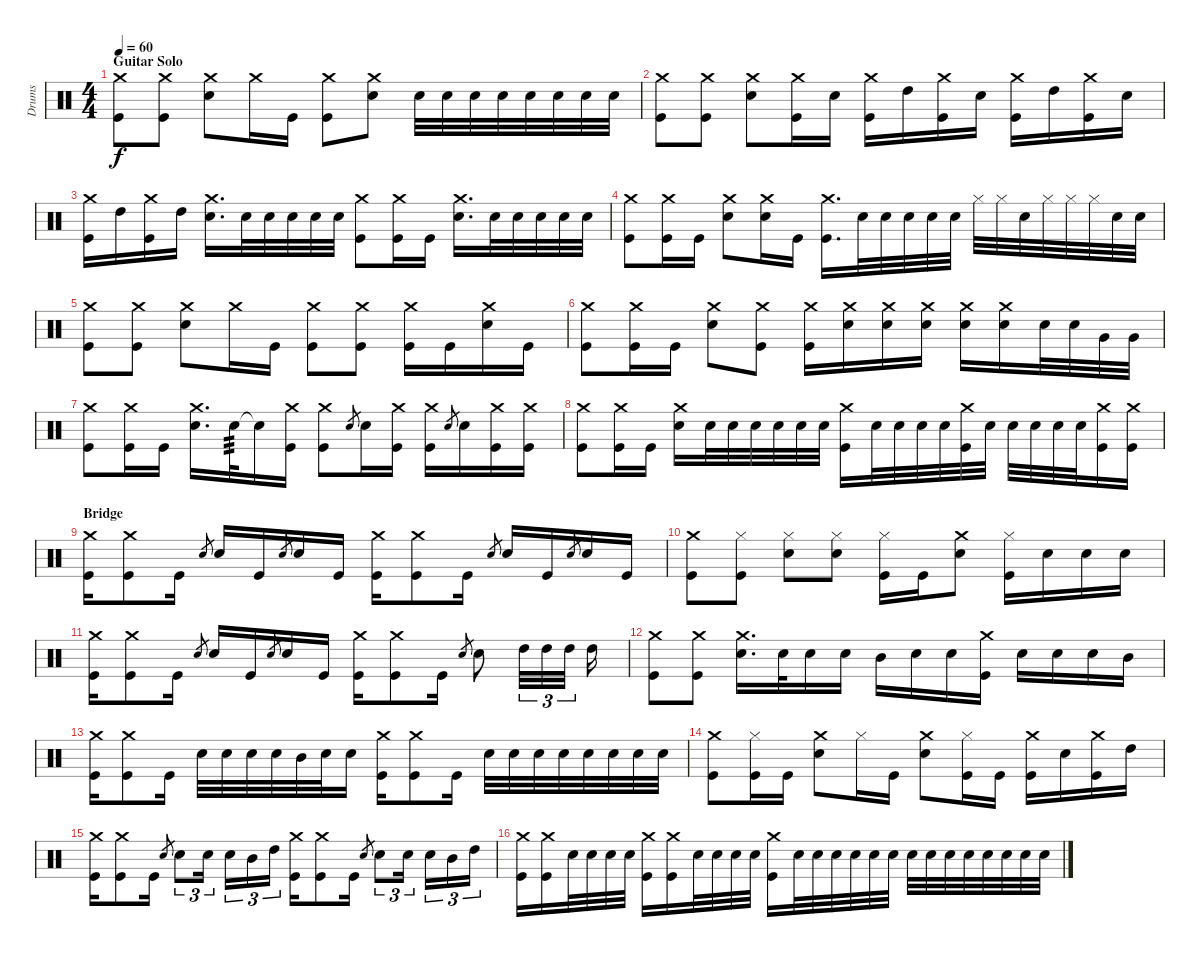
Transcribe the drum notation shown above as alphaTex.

\track ("Drums" "Drums") {instrument percussion}
\staff {score}
\articulation defaults
\ts (4 4)
\section ("" "Guitar Solo")
\tempo 60
\clef neutral
\ks c
("Kick (hit)" "Crash medium (hit)").8{dy f} ("Kick (hit)" "Crash medium (hit)").8 ("Electric Snare (hit)" "Crash medium (hit)").8 "Crash medium (hit)".16 "Kick (hit)".16 ("Kick (hit)" "Crash medium (hit)").8 ("Electric Snare (hit)" "Crash medium (hit)").8 "Electric Snare (hit)".32 "Electric Snare (hit)".32 "Electric Snare (hit)".32 "Electric Snare (hit)".32 "Electric Snare (hit)".32 "Electric Snare (hit)".32 "Electric Snare (hit)".32 "Electric Snare (hit)".32 |
("Kick (hit)" "Crash medium (hit)").8 ("Kick (hit)" "Crash medium (hit)").8 ("Electric Snare (hit)" "Crash medium (hit)").8 ("Kick (hit)" "Crash medium (hit)").16 "Electric Snare (hit)".16 ("Kick (hit)" "Crash medium (hit)").16 "High Tom (hit)".16 ("Kick (hit)" "Crash medium (hit)").16 "Electric Snare (hit)".16 ("Kick (hit)" "Crash medium (hit)").16 "High Tom (hit)".16 ("Kick (hit)" "Crash medium (hit)").16 "Electric Snare (hit)".16 |
("Kick (hit)" "Crash medium (hit)").16 "High Tom (hit)".16 ("Kick (hit)" "Crash medium (hit)").16 "High Tom (hit)".16 ("Electric Snare (hit)" "Crash medium (hit)").16{d} "Electric Snare (hit)".32 "Electric Snare (hit)".32 "Electric Snare (hit)".32 "Electric Snare (hit)".32 "Electric Snare (hit)".32 ("Kick (hit)" "Crash medium (hit)").8 ("Kick (hit)" "Crash medium (hit)").16 "Kick (hit)".16 ("Electric Snare (hit)" "Crash medium (hit)").16{d} "Electric Snare (hit)".32 "Electric Snare (hit)".32 "Electric Snare (hit)".32 "Electric Snare (hit)".32 "Electric Snare (hit)".32 |
("Kick (hit)" "Crash medium (hit)").8 ("Kick (hit)" "Crash medium (hit)").16 "Kick (hit)".16 ("Electric Snare (hit)" "Crash medium (hit)").8 ("Electric Snare (hit)" "Crash medium (hit)").16 "Kick (hit)".16 ("Kick (hit)" "Crash medium (hit)").16{d} "Electric Snare (hit)".32 "Electric Snare (hit)".32 "Electric Snare (hit)".32 "Electric Snare (hit)".32 "Electric Snare (hit)".32 "Hi-Hat (closed)".32 "Hi-Hat (closed)".32 "Electric Snare (hit)".32 "Hi-Hat (closed)".32 "Hi-Hat (closed)".32 "Hi-Hat (closed)".32 "Electric Snare (hit)".32 "Electric Snare (hit)".32 |
("Kick (hit)" "Crash medium (hit)").8 ("Kick (hit)" "Crash medium (hit)").8 ("Electric Snare (hit)" "Crash medium (hit)").8 "Crash medium (hit)".16 "Kick (hit)".16 ("Kick (hit)" "Crash medium (hit)").8 ("Kick (hit)" "Crash medium (hit)").8 ("Kick (hit)" "Crash medium (hit)").16 "Kick (hit)".16 ("Electric Snare (hit)" "Crash medium (hit)").16 "Kick (hit)".16 |
("Kick (hit)" "Crash medium (hit)").8 ("Kick (hit)" "Crash medium (hit)").16 "Kick (hit)".16 ("Electric Snare (hit)" "Crash medium (hit)").8 ("Kick (hit)" "Crash medium (hit)").8 ("Kick (hit)" "Crash medium (hit)").16 ("Electric Snare (hit)" "Crash medium (hit)").16 ("Electric Snare (hit)" "Crash medium (hit)").16 ("Electric Snare (hit)" "Crash medium (hit)").16 ("Electric Snare (hit)" "Crash medium (hit)").16 ("Electric Snare (hit)" "Crash medium (hit)").16 "Electric Snare (hit)".32 "Electric Snare (hit)".32 "Very Low Tom (hit)".32 "Very Low Tom (hit)".32 |
("Kick (hit)" "Crash medium (hit)").8 ("Kick (hit)" "Crash medium (hit)").16 "Kick (hit)".16 ("Electric Snare (hit)" "Crash medium (hit)").16{d} "Electric Snare (hit)".32{tp 3} "Snare (hit)"{t}.16 ("Kick (hit)" "Crash medium (hit)").16 ("Kick (hit)" "Crash medium (hit)").8 "Electric Snare (hit)".8{gr} "Electric Snare (hit)".16 ("Kick (hit)" "Crash medium (hit)").16 ("Kick (hit)" "Crash medium (hit)").16 "Electric Snare (hit)".8{gr} "Electric Snare (hit)".16 ("Kick (hit)" "Crash medium (hit)").16 ("Kick (hit)" "Crash medium (hit)").16 |
("Kick (hit)" "Crash medium (hit)").8 ("Kick (hit)" "Crash medium (hit)").16 "Kick (hit)".16 ("Electric Snare (hit)" "Crash medium (hit)").16 "Electric Snare (hit)".32 "Electric Snare (hit)".32 "Electric Snare (hit)".32 "Electric Snare (hit)".32 "Electric Snare (hit)".32 "Electric Snare (hit)".32 ("Kick (hit)" "Crash medium (hit)").16 "Electric Snare (hit)".32 "Electric Snare (hit)".32 "Electric Snare (hit)".32 "Electric Snare (hit)".32 ("Kick (hit)" "Crash medium (hit)").32 "Electric Snare (hit)".32 "Electric Snare (hit)".32 "Electric Snare (hit)".32 "Electric Snare (hit)".32 "Electric Snare (hit)".32 ("Kick (hit)" "Crash medium (hit)").16 ("Kick (hit)" "Crash medium (hit)").16 |
\section ("" "Bridge")
("Kick (hit)" "Crash medium (hit)").16 ("Kick (hit)" "Crash medium (hit)").8 "Kick (hit)".16 "Electric Snare (hit)".8{gr} "Electric Snare (hit)".16 "Kick (hit)".16 "Electric Snare (hit)".8{gr} "Electric Snare (hit)".16 "Kick (hit)".16 ("Kick (hit)" "Crash medium (hit)").16 ("Kick (hit)" "Crash medium (hit)").8 "Kick (hit)".16 "Electric Snare (hit)".8{gr} "Electric Snare (hit)".16 "Kick (hit)".16 "Electric Snare (hit)".8{gr} "Electric Snare (hit)".16 "Kick (hit)".16 |
("Kick (hit)" "Crash medium (hit)").8 ("Kick (hit)" "Hi-Hat (closed)").8 ("Electric Snare (hit)" "Hi-Hat (closed)").8 ("Electric Snare (hit)" "Hi-Hat (closed)").8 ("Kick (hit)" "Hi-Hat (closed)").16 "Kick (hit)".16 ("Electric Snare (hit)" "Crash medium (hit)").8 ("Kick (hit)" "Hi-Hat (closed)").16 "Electric Snare (hit)".16 "Electric Snare (hit)".16 "Electric Snare (hit)".16 |
("Kick (hit)" "Crash medium (hit)").16 ("Kick (hit)" "Crash medium (hit)").8 "Kick (hit)".16 "Electric Snare (hit)".8{gr} "Electric Snare (hit)".16 "Kick (hit)".16 "Electric Snare (hit)".8{gr} "Electric Snare (hit)".16 "Kick (hit)".16 ("Kick (hit)" "Crash medium (hit)").16 ("Kick (hit)" "Crash medium (hit)").8 "Kick (hit)".16 "Electric Snare (hit)".8{gr} "Electric Snare (hit)".8 "High Tom (hit)".32{tu (3 2)} "High Tom (hit)".32{tu (3 2)} "High Tom (hit)".32{tu (3 2)} "High Tom (hit)".16 |
("Kick (hit)" "Crash medium (hit)").8 ("Kick (hit)" "Crash medium (hit)").8 ("Electric Snare (hit)" "Crash medium (hit)").16{d} "Electric Snare (hit)".32 "Electric Snare (hit)".16 "Electric Snare (hit)".16 "Mid Tom (hit)".16 "Electric Snare (hit)".16 "Electric Snare (hit)".16 ("Kick (hit)" "Crash medium (hit)").16 "Electric Snare (hit)".16 "Electric Snare (hit)".16 "Electric Snare (hit)".16 "Mid Tom (hit)".16 |
("Kick (hit)" "Crash medium (hit)").16 ("Kick (hit)" "Crash medium (hit)").8 "Kick (hit)".16 "Electric Snare (hit)".32 "Electric Snare (hit)".32 "Electric Snare (hit)".32 "Electric Snare (hit)".32 "Mid Tom (hit)".32 "Electric Snare (hit)".32 "Electric Snare (hit)".16 ("Kick (hit)" "Crash medium (hit)").16 ("Kick (hit)" "Crash medium (hit)").8 "Kick (hit)".16 "Electric Snare (hit)".32 "Electric Snare (hit)".32 "Electric Snare (hit)".32 "Electric Snare (hit)".32 "Electric Snare (hit)".32 "Electric Snare (hit)".32 "Electric Snare (hit)".32 "Electric Snare (hit)".32 |
("Kick (hit)" "Crash medium (hit)").8 ("Kick (hit)" "Hi-Hat (closed)").16 "Kick (hit)".16 ("Electric Snare (hit)" "Crash medium (hit)").8 "Hi-Hat (closed)".16 "Kick (hit)".16 ("Electric Snare (hit)" "Crash medium (hit)").8 ("Kick (hit)" "Hi-Hat (closed)").16 "Kick (hit)".16 ("Kick (hit)" "Crash medium (hit)").16 "Electric Snare (hit)".16 ("Kick (hit)" "Crash medium (hit)").16 "High Tom (hit)".16 |
("Kick (hit)" "Crash medium (hit)").16 ("Kick (hit)" "Crash medium (hit)").8 "Kick (hit)".16 "Electric Snare (hit)".8{gr} "Electric Snare (hit)".8{tu (3 2)} "Electric Snare (hit)".16{tu (3 2)} "Electric Snare (hit)".16{tu (3 2)} "Mid Tom (hit)".16{tu (3 2)} "High Tom (hit)".16{tu (3 2)} ("Kick (hit)" "Crash medium (hit)").16 ("Kick (hit)" "Crash medium (hit)").8 "Kick (hit)".16 "Electric Snare (hit)".8{gr} "Electric Snare (hit)".8{tu (3 2)} "Electric Snare (hit)".16{tu (3 2)} "Electric Snare (hit)".16{tu (3 2)} "Mid Tom (hit)".16{tu (3 2)} "High Tom (hit)".16{tu (3 2)} |
("Kick (hit)" "Crash medium (hit)").16 ("Kick (hit)" "Crash medium (hit)").16 "Electric Snare (hit)".32 "Electric Snare (hit)".32 "Electric Snare (hit)".32 "Electric Snare (hit)".32 ("Kick (hit)" "Crash medium (hit)").16 ("Kick (hit)" "Crash medium (hit)").16 "Electric Snare (hit)".32 "Electric Snare (hit)".32 "Electric Snare (hit)".32 "Electric Snare (hit)".32 ("Kick (hit)" "Crash medium (hit)").16 "Electric Snare (hit)".32 "Electric Snare (hit)".32 "Electric Snare (hit)".32 "Electric Snare (hit)".32 "Electric Snare (hit)".32 "Electric Snare (hit)".32 "Electric Snare (hit)".32 "Electric Snare (hit)".32 "Electric Snare (hit)".32 "Electric Snare (hit)".32 "Electric Snare (hit)".32 "Electric Snare (hit)".32 "Electric Snare (hit)".32 "Electric Snare (hit)".32
